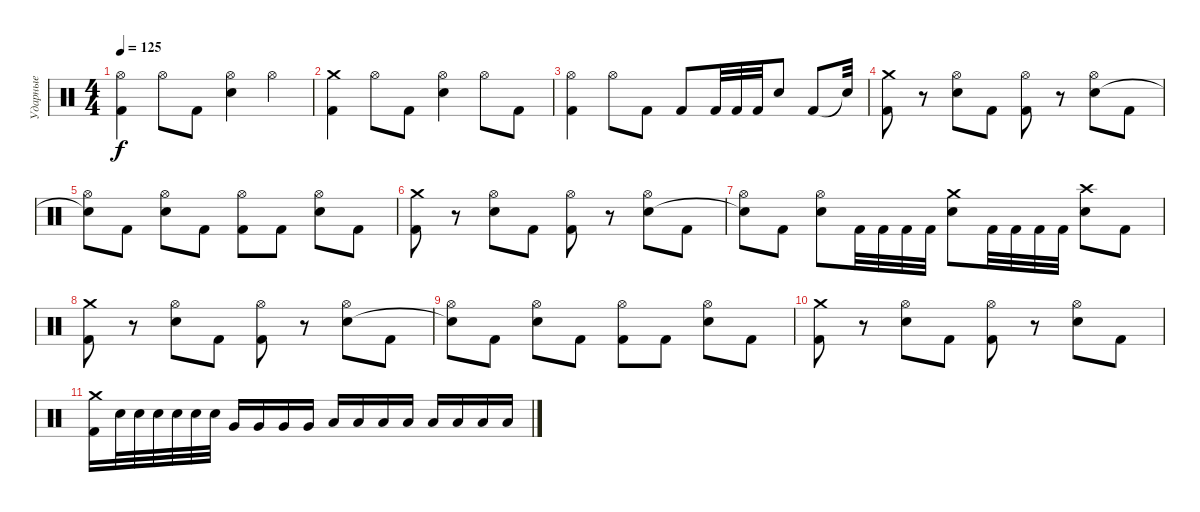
\track ("Ударные" "Ударные") {instrument percussion}
\staff {score}
\articulation defaults
\ts (4 4)
\tempo 125
\clef neutral
\ks c
("Hi-Hat (open)" "Kick (hit) 2").4{dy f} "Hi-Hat (open)".8 "Kick (hit) 2".8 ("Hi-Hat (open)" "Electric Snare (hit)").4 "Hi-Hat (open)".4 |
("Crash medium (hit)" "Kick (hit) 2").4 "Hi-Hat (open)".8 "Kick (hit) 2".8 ("Hi-Hat (open)" "Electric Snare (hit)").4 "Hi-Hat (open)".8 "Kick (hit) 2".8 |
("Hi-Hat (open)" "Kick (hit) 2").4 "Hi-Hat (open)".8 "Kick (hit) 2".8 "Kick (hit) 2".8 "Kick (hit) 2".32 "Kick (hit) 2".32 "Kick (hit) 2".32 "Electric Snare (hit)".8 "Kick (hit) 2".8 "Snare (hit)"{t}.32 |
("Crash medium (hit)" "Kick (hit) 2").8 r.8 ("Hi-Hat (open)" "Electric Snare (hit)").8 "Kick (hit) 2".8 ("Hi-Hat (open)" "Kick (hit) 2").8 r.8 ("Hi-Hat (open)" "Electric Snare (hit)").8 "Kick (hit) 2".8 |
("Hi-Hat (open)" "Snare (hit)"{t}).8 "Kick (hit) 2".8 ("Hi-Hat (open)" "Electric Snare (hit)").8 "Kick (hit) 2".8 ("Hi-Hat (open)" "Kick (hit) 2").8 "Kick (hit) 2".8 ("Hi-Hat (open)" "Electric Snare (hit)").8 "Kick (hit) 2".8 |
("Crash medium (hit)" "Kick (hit) 2").8 r.8 ("Hi-Hat (open)" "Electric Snare (hit)").8 "Kick (hit) 2".8 ("Hi-Hat (open)" "Kick (hit) 2").8 r.8 ("Hi-Hat (open)" "Electric Snare (hit)").8 "Kick (hit) 2".8 |
("Hi-Hat (open)" "Snare (hit)"{t}).8 "Kick (hit) 2".8 ("Hi-Hat (open)" "Electric Snare (hit)").8 "Kick (hit) 2".32 "Kick (hit) 2".32 "Kick (hit) 2".32 "Kick (hit) 2".32 ("Crash medium (hit)" "Electric Snare (hit)").8 "Kick (hit) 2".32 "Kick (hit) 2".32 "Kick (hit) 2".32 "Kick (hit) 2".32 ("Crash high (hit)" "Electric Snare (hit)").8 "Kick (hit) 2".8 |
("Crash medium (hit)" "Kick (hit) 2").8 r.8 ("Hi-Hat (open)" "Electric Snare (hit)").8 "Kick (hit) 2".8 ("Hi-Hat (open)" "Kick (hit) 2").8 r.8 ("Hi-Hat (open)" "Electric Snare (hit)").8 "Kick (hit) 2".8 |
("Hi-Hat (open)" "Snare (hit)"{t}).8 "Kick (hit) 2".8 ("Hi-Hat (open)" "Electric Snare (hit)").8 "Kick (hit) 2".8 ("Hi-Hat (open)" "Kick (hit) 2").8 "Kick (hit) 2".8 ("Hi-Hat (open)" "Electric Snare (hit)").8 "Kick (hit) 2".8 |
("Crash medium (hit)" "Kick (hit) 2").8 r.8 ("Hi-Hat (open)" "Electric Snare (hit)").8 "Kick (hit) 2".8 ("Hi-Hat (open)" "Kick (hit) 2").8 r.8 ("Hi-Hat (open)" "Electric Snare (hit)").8 "Kick (hit) 2".8 |
("Crash medium (hit)" "Kick (hit) 2").16 "Electric Snare (hit)".32 "Electric Snare (hit)".32 "Electric Snare (hit)".32 "Electric Snare (hit)".32 "Electric Snare (hit)".32 "Electric Snare (hit)".32 "Very Low Tom (hit)".16 "Very Low Tom (hit)".16 "Very Low Tom (hit)".16 "Very Low Tom (hit)".16 "Low Floor Tom (hit)".16 "Low Floor Tom (hit)".16 "Low Floor Tom (hit)".16 "Low Floor Tom (hit)".16 "Low Floor Tom (hit)".16 "Low Floor Tom (hit)".16 "Low Floor Tom (hit)".16 "Low Floor Tom (hit)".16
